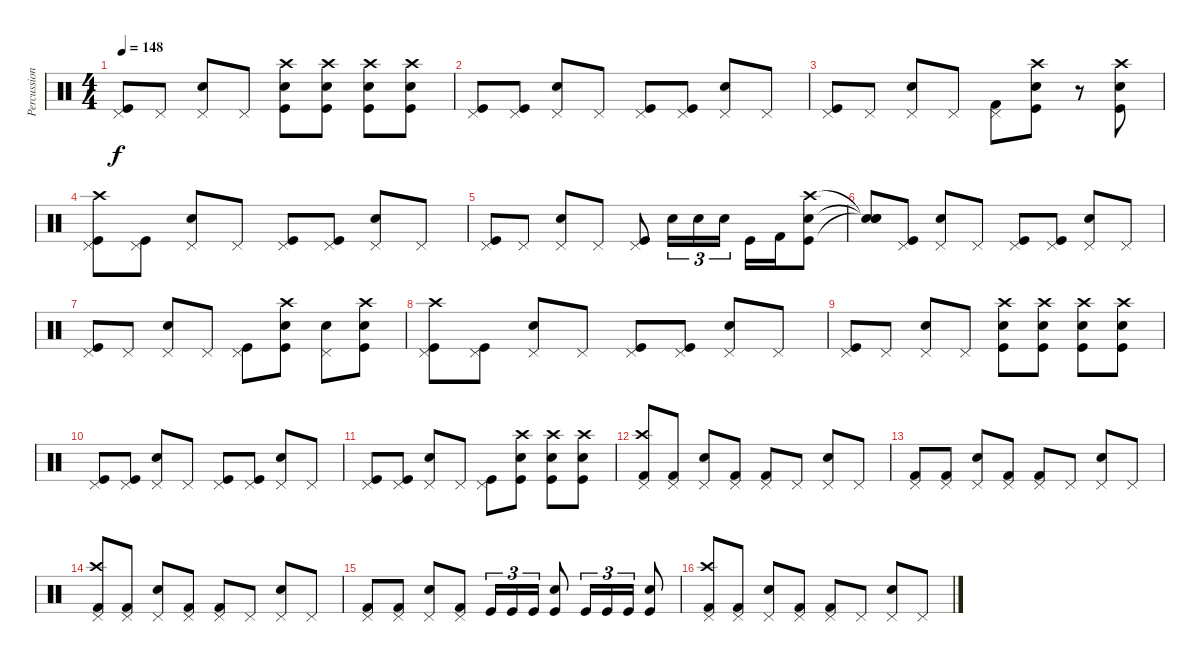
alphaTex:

\track ("Percussion" "Percussion") {instrument percussion}
\staff {score}
\articulation defaults
\ts (4 4)
\tempo 148
\clef neutral
\ks c
("Pedal Hi-Hat (hit)" "Kick (hit)").8{dy f} "Pedal Hi-Hat (hit)".8 ("Pedal Hi-Hat (hit)" "Snare (hit) 2").8 "Pedal Hi-Hat (hit)".8 ("Snare (hit) 2" "Kick (hit)" "Crash high (hit)").8 ("Snare (hit) 2" "Kick (hit)" "Crash high (hit)").8 ("Snare (hit) 2" "Kick (hit)" "Crash high (hit)").8 ("Snare (hit) 2" "Kick (hit)" "Crash high (hit)").8 |
("Pedal Hi-Hat (hit)" "Kick (hit)").8 ("Pedal Hi-Hat (hit)" "Kick (hit)").8 ("Pedal Hi-Hat (hit)" "Snare (hit) 2").8 "Pedal Hi-Hat (hit)".8 ("Pedal Hi-Hat (hit)" "Kick (hit)").8 ("Pedal Hi-Hat (hit)" "Kick (hit)").8 ("Pedal Hi-Hat (hit)" "Snare (hit) 2").8 "Pedal Hi-Hat (hit)".8 |
("Pedal Hi-Hat (hit)" "Kick (hit)").8 "Pedal Hi-Hat (hit)".8 ("Pedal Hi-Hat (hit)" "Snare (hit) 2").8 "Pedal Hi-Hat (hit)".8 ("Pedal Hi-Hat (hit)" "Kick (hit) 2").8 ("Crash high (hit)" "Kick (hit)" "Snare (hit) 2").8 r.8 ("Crash high (hit)" "Kick (hit)" "Snare (hit) 2").8 |
("Pedal Hi-Hat (hit)" "Kick (hit)" "Crash high (hit)").8 ("Pedal Hi-Hat (hit)" "Kick (hit)").8 ("Pedal Hi-Hat (hit)" "Snare (hit) 2").8 "Pedal Hi-Hat (hit)".8 ("Pedal Hi-Hat (hit)" "Kick (hit)").8 ("Pedal Hi-Hat (hit)" "Kick (hit)").8 ("Pedal Hi-Hat (hit)" "Snare (hit) 2").8 "Pedal Hi-Hat (hit)".8 |
("Pedal Hi-Hat (hit)" "Kick (hit)").8 "Pedal Hi-Hat (hit)".8 ("Pedal Hi-Hat (hit)" "Snare (hit) 2").8 "Pedal Hi-Hat (hit)".8 ("Pedal Hi-Hat (hit)" "Kick (hit)").8 "Snare (hit) 2".16{tu (3 2)} "Snare (hit) 2".16{tu (3 2)} "Snare (hit) 2".16{tu (3 2)} "Kick (hit)".16 "Kick (hit) 2".16 ("Snare (hit) 2" "Crash high (hit)" "Kick (hit)").8 |
("Snare (hit)"{t} "Snare (hit)"{t} "Snare (hit)"{t}).8 ("Pedal Hi-Hat (hit)" "Kick (hit)").8 ("Pedal Hi-Hat (hit)" "Snare (hit) 2").8 "Pedal Hi-Hat (hit)".8 ("Pedal Hi-Hat (hit)" "Kick (hit)").8 ("Pedal Hi-Hat (hit)" "Kick (hit)").8 ("Pedal Hi-Hat (hit)" "Snare (hit) 2").8 "Pedal Hi-Hat (hit)".8 |
("Pedal Hi-Hat (hit)" "Kick (hit)").8 "Pedal Hi-Hat (hit)".8 ("Pedal Hi-Hat (hit)" "Snare (hit) 2").8 "Pedal Hi-Hat (hit)".8 ("Pedal Hi-Hat (hit)" "Kick (hit)").8 ("Crash high (hit)" "Kick (hit)" "Snare (hit) 2").8 ("Pedal Hi-Hat (hit)" "Snare (hit) 2").8 ("Crash high (hit)" "Kick (hit)" "Snare (hit) 2").8 |
("Pedal Hi-Hat (hit)" "Kick (hit)" "Crash high (hit)").8 ("Pedal Hi-Hat (hit)" "Kick (hit)").8 ("Pedal Hi-Hat (hit)" "Snare (hit) 2").8 "Pedal Hi-Hat (hit)".8 ("Pedal Hi-Hat (hit)" "Kick (hit)").8 ("Pedal Hi-Hat (hit)" "Kick (hit)").8 ("Pedal Hi-Hat (hit)" "Snare (hit) 2").8 "Pedal Hi-Hat (hit)".8 |
("Pedal Hi-Hat (hit)" "Kick (hit)").8 "Pedal Hi-Hat (hit)".8 ("Pedal Hi-Hat (hit)" "Snare (hit) 2").8 "Pedal Hi-Hat (hit)".8 ("Snare (hit) 2" "Kick (hit)" "Crash high (hit)").8 ("Snare (hit) 2" "Kick (hit)" "Crash high (hit)").8 ("Snare (hit) 2" "Kick (hit)" "Crash high (hit)").8 ("Snare (hit) 2" "Kick (hit)" "Crash high (hit)").8 |
("Pedal Hi-Hat (hit)" "Kick (hit)").8 ("Pedal Hi-Hat (hit)" "Kick (hit)").8 ("Pedal Hi-Hat (hit)" "Snare (hit) 2").8 "Pedal Hi-Hat (hit)".8 ("Pedal Hi-Hat (hit)" "Kick (hit)").8 ("Pedal Hi-Hat (hit)" "Kick (hit)").8 ("Pedal Hi-Hat (hit)" "Snare (hit) 2").8 "Pedal Hi-Hat (hit)".8 |
("Pedal Hi-Hat (hit)" "Kick (hit)").8 ("Pedal Hi-Hat (hit)" "Kick (hit)").8 ("Pedal Hi-Hat (hit)" "Snare (hit) 2").8 "Pedal Hi-Hat (hit)".8 ("Pedal Hi-Hat (hit)" "Kick (hit)").8 ("Crash high (hit)" "Kick (hit)" "Snare (hit) 2").8 ("Crash high (hit)" "Kick (hit)" "Snare (hit) 2").8 ("Crash high (hit)" "Kick (hit)" "Snare (hit) 2").8 |
("Pedal Hi-Hat (hit)" "Kick (hit) 2" "Crash high (hit)").8 ("Pedal Hi-Hat (hit)" "Kick (hit) 2").8 ("Pedal Hi-Hat (hit)" "Snare (hit) 2").8 ("Pedal Hi-Hat (hit)" "Kick (hit) 2").8 ("Pedal Hi-Hat (hit)" "Kick (hit) 2").8 "Pedal Hi-Hat (hit)".8 ("Pedal Hi-Hat (hit)" "Snare (hit) 2").8 "Pedal Hi-Hat (hit)".8 |
("Pedal Hi-Hat (hit)" "Kick (hit) 2").8 ("Pedal Hi-Hat (hit)" "Kick (hit) 2").8 ("Pedal Hi-Hat (hit)" "Snare (hit) 2").8 ("Pedal Hi-Hat (hit)" "Kick (hit) 2").8 ("Pedal Hi-Hat (hit)" "Kick (hit) 2").8 "Pedal Hi-Hat (hit)".8 ("Pedal Hi-Hat (hit)" "Snare (hit) 2").8 "Pedal Hi-Hat (hit)".8 |
("Pedal Hi-Hat (hit)" "Kick (hit) 2" "Crash high (hit)").8 ("Pedal Hi-Hat (hit)" "Kick (hit) 2").8 ("Pedal Hi-Hat (hit)" "Snare (hit) 2").8 ("Pedal Hi-Hat (hit)" "Kick (hit) 2").8 ("Pedal Hi-Hat (hit)" "Kick (hit) 2").8 "Pedal Hi-Hat (hit)".8 ("Pedal Hi-Hat (hit)" "Snare (hit) 2").8 "Pedal Hi-Hat (hit)".8 |
("Pedal Hi-Hat (hit)" "Kick (hit) 2").8 ("Pedal Hi-Hat (hit)" "Kick (hit) 2").8 ("Pedal Hi-Hat (hit)" "Snare (hit) 2").8 ("Pedal Hi-Hat (hit)" "Kick (hit) 2").8 "Kick (hit)".16{tu (3 2)} "Kick (hit)".16{tu (3 2)} "Kick (hit)".16{tu (3 2)} ("Snare (hit) 2" "Kick (hit)").8 "Kick (hit)".16{tu (3 2)} "Kick (hit)".16{tu (3 2)} "Kick (hit)".16{tu (3 2)} ("Snare (hit) 2" "Kick (hit)").8 |
("Pedal Hi-Hat (hit)" "Kick (hit) 2" "Crash high (hit)").8 ("Pedal Hi-Hat (hit)" "Kick (hit) 2").8 ("Pedal Hi-Hat (hit)" "Snare (hit) 2").8 ("Pedal Hi-Hat (hit)" "Kick (hit) 2").8 ("Pedal Hi-Hat (hit)" "Kick (hit) 2").8 "Pedal Hi-Hat (hit)".8 ("Pedal Hi-Hat (hit)" "Snare (hit) 2").8 "Pedal Hi-Hat (hit)".8
